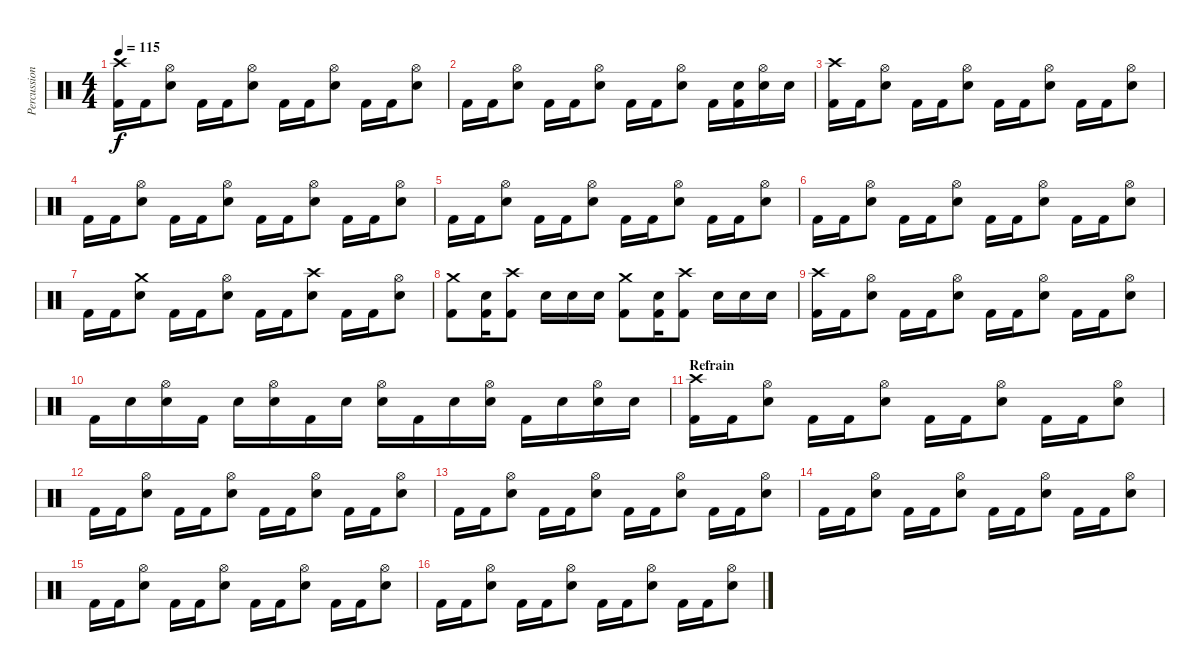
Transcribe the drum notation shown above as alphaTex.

\track ("Percussions" "Percussion") {instrument percussion}
\staff {score}
\articulation defaults
\ts (4 4)
\tempo 115
\clef neutral
\ks c
("Crash high (hit)" "Kick (hit) 2").16{dy f} "Kick (hit) 2".16 ("Hi-Hat (open)" "Snare (hit) 2").8 "Kick (hit) 2".16 "Kick (hit) 2".16 ("Hi-Hat (open)" "Snare (hit) 2").8 "Kick (hit) 2".16 "Kick (hit) 2".16 ("Hi-Hat (open)" "Snare (hit) 2").8 "Kick (hit) 2".16 "Kick (hit) 2".16 ("Hi-Hat (open)" "Snare (hit) 2").8 |
"Kick (hit) 2".16 "Kick (hit) 2".16 ("Hi-Hat (open)" "Snare (hit) 2").8 "Kick (hit) 2".16 "Kick (hit) 2".16 ("Hi-Hat (open)" "Snare (hit) 2").8 "Kick (hit) 2".16 "Kick (hit) 2".16 ("Hi-Hat (open)" "Snare (hit) 2").8 "Kick (hit) 2".16 ("Snare (hit) 2" "Kick (hit) 2").16 ("Hi-Hat (open)" "Snare (hit) 2").16 "Snare (hit) 2".16 |
("Crash high (hit)" "Kick (hit) 2").16 "Kick (hit) 2".16 ("Hi-Hat (open)" "Snare (hit) 2").8 "Kick (hit) 2".16 "Kick (hit) 2".16 ("Hi-Hat (open)" "Snare (hit) 2").8 "Kick (hit) 2".16 "Kick (hit) 2".16 ("Hi-Hat (open)" "Snare (hit) 2").8 "Kick (hit) 2".16 "Kick (hit) 2".16 ("Hi-Hat (open)" "Snare (hit) 2").8 |
"Kick (hit) 2".16 "Kick (hit) 2".16 ("Hi-Hat (open)" "Snare (hit) 2").8 "Kick (hit) 2".16 "Kick (hit) 2".16 ("Hi-Hat (open)" "Snare (hit) 2").8 "Kick (hit) 2".16 "Kick (hit) 2".16 ("Hi-Hat (open)" "Snare (hit) 2").8 "Kick (hit) 2".16 "Kick (hit) 2".16 ("Hi-Hat (open)" "Snare (hit) 2").8 |
"Kick (hit) 2".16 "Kick (hit) 2".16 ("Hi-Hat (open)" "Snare (hit) 2").8 "Kick (hit) 2".16 "Kick (hit) 2".16 ("Hi-Hat (open)" "Snare (hit) 2").8 "Kick (hit) 2".16 "Kick (hit) 2".16 ("Hi-Hat (open)" "Snare (hit) 2").8 "Kick (hit) 2".16 "Kick (hit) 2".16 ("Hi-Hat (open)" "Snare (hit) 2").8 |
"Kick (hit) 2".16 "Kick (hit) 2".16 ("Hi-Hat (open)" "Snare (hit) 2").8 "Kick (hit) 2".16 "Kick (hit) 2".16 ("Hi-Hat (open)" "Snare (hit) 2").8 "Kick (hit) 2".16 "Kick (hit) 2".16 ("Hi-Hat (open)" "Snare (hit) 2").8 "Kick (hit) 2".16 "Kick (hit) 2".16 ("Hi-Hat (open)" "Snare (hit) 2").8 |
"Kick (hit) 2".16 "Kick (hit) 2".16 ("Crash medium (hit)" "Snare (hit) 2").8 "Kick (hit) 2".16 "Kick (hit) 2".16 ("Hi-Hat (open)" "Snare (hit) 2").8 "Kick (hit) 2".16 "Kick (hit) 2".16 ("Crash high (hit)" "Snare (hit) 2").8 "Kick (hit) 2".16 "Kick (hit) 2".16 ("Hi-Hat (open)" "Snare (hit) 2").8 |
("Crash medium (hit)" "Kick (hit) 2").8 ("Snare (hit) 2" "Kick (hit) 2").16 ("Crash high (hit)" "Kick (hit) 2").8 "Snare (hit) 2".16 "Snare (hit) 2".16 "Snare (hit) 2".16 ("Crash medium (hit)" "Kick (hit) 2").8 ("Snare (hit) 2" "Kick (hit) 2").16 ("Crash high (hit)" "Kick (hit) 2").8 "Snare (hit) 2".16 "Snare (hit) 2".16 "Snare (hit) 2".16 |
("Crash high (hit)" "Kick (hit) 2").16 "Kick (hit) 2".16 ("Hi-Hat (open)" "Snare (hit) 2").8 "Kick (hit) 2".16 "Kick (hit) 2".16 ("Hi-Hat (open)" "Snare (hit) 2").8 "Kick (hit) 2".16 "Kick (hit) 2".16 ("Hi-Hat (open)" "Snare (hit) 2").8 "Kick (hit) 2".16 "Kick (hit) 2".16 ("Hi-Hat (open)" "Snare (hit) 2").8 |
"Kick (hit) 2".16 "Snare (hit) 2".16 ("Hi-Hat (open)" "Snare (hit) 2").16 "Kick (hit) 2".16 "Snare (hit) 2".16 ("Hi-Hat (open)" "Snare (hit) 2").16 "Kick (hit) 2".16 "Snare (hit) 2".16 ("Hi-Hat (open)" "Snare (hit) 2").16 "Kick (hit) 2".16 "Snare (hit) 2".16 ("Hi-Hat (open)" "Snare (hit) 2").16 "Kick (hit) 2".16 "Snare (hit) 2".16 ("Hi-Hat (open)" "Snare (hit) 2").16 "Snare (hit) 2".16 |
\section ("" "Refrain")
("Crash high (hit)" "Kick (hit) 2").16 "Kick (hit) 2".16 ("Hi-Hat (open)" "Snare (hit) 2").8 "Kick (hit) 2".16 "Kick (hit) 2".16 ("Hi-Hat (open)" "Snare (hit) 2").8 "Kick (hit) 2".16 "Kick (hit) 2".16 ("Hi-Hat (open)" "Snare (hit) 2").8 "Kick (hit) 2".16 "Kick (hit) 2".16 ("Hi-Hat (open)" "Snare (hit) 2").8 |
"Kick (hit) 2".16 "Kick (hit) 2".16 ("Hi-Hat (open)" "Snare (hit) 2").8 "Kick (hit) 2".16 "Kick (hit) 2".16 ("Hi-Hat (open)" "Snare (hit) 2").8 "Kick (hit) 2".16 "Kick (hit) 2".16 ("Hi-Hat (open)" "Snare (hit) 2").8 "Kick (hit) 2".16 "Kick (hit) 2".16 ("Hi-Hat (open)" "Snare (hit) 2").8 |
"Kick (hit) 2".16 "Kick (hit) 2".16 ("Hi-Hat (open)" "Snare (hit) 2").8 "Kick (hit) 2".16 "Kick (hit) 2".16 ("Hi-Hat (open)" "Snare (hit) 2").8 "Kick (hit) 2".16 "Kick (hit) 2".16 ("Hi-Hat (open)" "Snare (hit) 2").8 "Kick (hit) 2".16 "Kick (hit) 2".16 ("Hi-Hat (open)" "Snare (hit) 2").8 |
"Kick (hit) 2".16 "Kick (hit) 2".16 ("Hi-Hat (open)" "Snare (hit) 2").8 "Kick (hit) 2".16 "Kick (hit) 2".16 ("Hi-Hat (open)" "Snare (hit) 2").8 "Kick (hit) 2".16 "Kick (hit) 2".16 ("Hi-Hat (open)" "Snare (hit) 2").8 "Kick (hit) 2".16 "Kick (hit) 2".16 ("Hi-Hat (open)" "Snare (hit) 2").8 |
"Kick (hit) 2".16 "Kick (hit) 2".16 ("Hi-Hat (open)" "Snare (hit) 2").8 "Kick (hit) 2".16 "Kick (hit) 2".16 ("Hi-Hat (open)" "Snare (hit) 2").8 "Kick (hit) 2".16 "Kick (hit) 2".16 ("Hi-Hat (open)" "Snare (hit) 2").8 "Kick (hit) 2".16 "Kick (hit) 2".16 ("Hi-Hat (open)" "Snare (hit) 2").8 |
"Kick (hit) 2".16 "Kick (hit) 2".16 ("Hi-Hat (open)" "Snare (hit) 2").8 "Kick (hit) 2".16 "Kick (hit) 2".16 ("Hi-Hat (open)" "Snare (hit) 2").8 "Kick (hit) 2".16 "Kick (hit) 2".16 ("Hi-Hat (open)" "Snare (hit) 2").8 "Kick (hit) 2".16 "Kick (hit) 2".16 ("Hi-Hat (open)" "Snare (hit) 2").8
